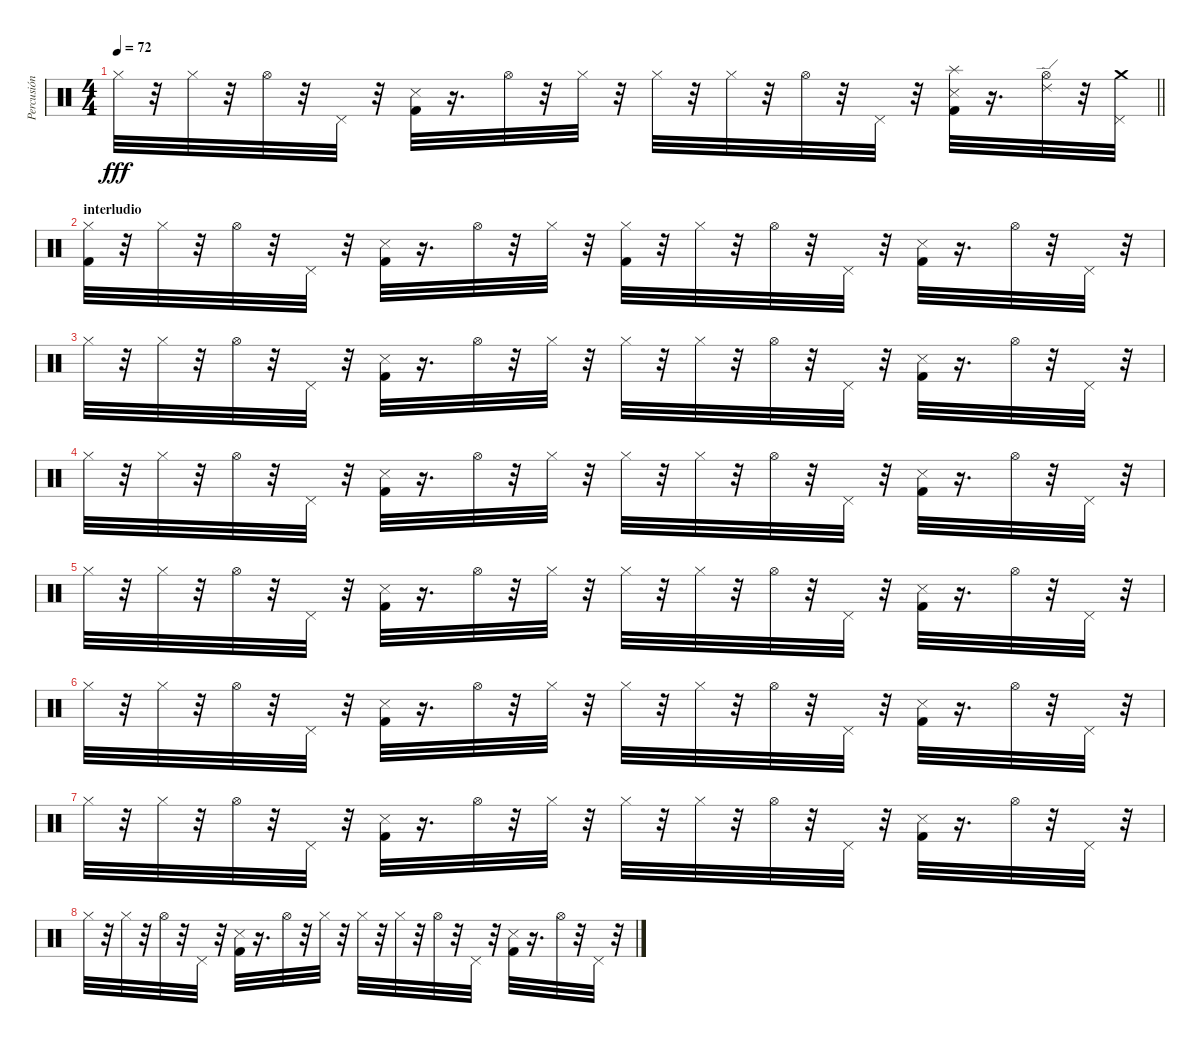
\track ("Percusión" "Percusión") {instrument percussion}
\staff {score}
\articulation defaults
\ts (4 4)
\tempo 72
\clef neutral
\barLineRight lightlight
\ks c "Hi-Hat (closed)".32{dy fff}
r.32 "Hi-Hat (closed)".32 r.32 "Hi-Hat (open)".32 r.32 "Pedal Hi-Hat (hit)".32 r.32 ("Kick (hit) 2" "Snare (side stick) 3").32 r.16{d} "Hi-Hat (open)".32 r.32 "Hi-Hat (closed)".32 r.32 "Hi-Hat (closed)".32 r.32 "Hi-Hat (closed)".32 r.32 "Hi-Hat (open)".32 r.32 "Pedal Hi-Hat (hit)".32 r.32 ("Kick (hit) 2" "Snare (side stick) 3" "Splash (hit)").32 r.16{d} ("Hi-Hat (open)" "Ride (edge) 2").32 r.32 ("Pedal Hi-Hat (hit)" "Crash medium (hit)").32 |
\section ("" "interludio")
("Kick (hit) 2" "Hi-Hat (closed)").32 r.32 "Hi-Hat (closed)".32 r.32 "Hi-Hat (open)".32 r.32 "Pedal Hi-Hat (hit)".32 r.32 ("Snare (side stick) 3" "Kick (hit) 2").32 r.16{d} "Hi-Hat (open)".32 r.32 "Hi-Hat (closed)".32 r.32 ("Kick (hit) 2" "Hi-Hat (closed)").32 r.32 "Hi-Hat (closed)".32 r.32 "Hi-Hat (open)".32 r.32 "Pedal Hi-Hat (hit)".32 r.32 ("Snare (side stick) 3" "Kick (hit) 2").32 r.16{d} "Hi-Hat (open)".32 r.32 "Pedal Hi-Hat (hit)".32 r.32 |
"Hi-Hat (closed)".32 r.32 "Hi-Hat (closed)".32 r.32 "Hi-Hat (open)".32 r.32 "Pedal Hi-Hat (hit)".32 r.32 ("Kick (hit) 2" "Snare (side stick) 3").32 r.16{d} "Hi-Hat (open)".32 r.32 "Hi-Hat (closed)".32 r.32 "Hi-Hat (closed)".32 r.32 "Hi-Hat (closed)".32 r.32 "Hi-Hat (open)".32 r.32 "Pedal Hi-Hat (hit)".32 r.32 ("Kick (hit) 2" "Snare (side stick) 3").32 r.16{d} "Hi-Hat (open)".32 r.32 "Pedal Hi-Hat (hit)".32 r.32 |
"Hi-Hat (closed)".32 r.32 "Hi-Hat (closed)".32 r.32 "Hi-Hat (open)".32 r.32 "Pedal Hi-Hat (hit)".32 r.32 ("Kick (hit) 2" "Snare (side stick) 3").32 r.16{d} "Hi-Hat (open)".32 r.32 "Hi-Hat (closed)".32 r.32 "Hi-Hat (closed)".32 r.32 "Hi-Hat (closed)".32 r.32 "Hi-Hat (open)".32 r.32 "Pedal Hi-Hat (hit)".32 r.32 ("Kick (hit) 2" "Snare (side stick) 3").32 r.16{d} "Hi-Hat (open)".32 r.32 "Pedal Hi-Hat (hit)".32 r.32 |
"Hi-Hat (closed)".32 r.32 "Hi-Hat (closed)".32 r.32 "Hi-Hat (open)".32 r.32 "Pedal Hi-Hat (hit)".32 r.32 ("Kick (hit) 2" "Snare (side stick) 3").32 r.16{d} "Hi-Hat (open)".32 r.32 "Hi-Hat (closed)".32 r.32 "Hi-Hat (closed)".32 r.32 "Hi-Hat (closed)".32 r.32 "Hi-Hat (open)".32 r.32 "Pedal Hi-Hat (hit)".32 r.32 ("Kick (hit) 2" "Snare (side stick) 3").32 r.16{d} "Hi-Hat (open)".32 r.32 "Pedal Hi-Hat (hit)".32 r.32 |
"Hi-Hat (closed)".32 r.32 "Hi-Hat (closed)".32 r.32 "Hi-Hat (open)".32 r.32 "Pedal Hi-Hat (hit)".32 r.32 ("Kick (hit) 2" "Snare (side stick) 3").32 r.16{d} "Hi-Hat (open)".32 r.32 "Hi-Hat (closed)".32 r.32 "Hi-Hat (closed)".32 r.32 "Hi-Hat (closed)".32 r.32 "Hi-Hat (open)".32 r.32 "Pedal Hi-Hat (hit)".32 r.32 ("Kick (hit) 2" "Snare (side stick) 3").32 r.16{d} "Hi-Hat (open)".32 r.32 "Pedal Hi-Hat (hit)".32 r.32 |
"Hi-Hat (closed)".32 r.32 "Hi-Hat (closed)".32 r.32 "Hi-Hat (open)".32 r.32 "Pedal Hi-Hat (hit)".32 r.32 ("Kick (hit) 2" "Snare (side stick) 3").32 r.16{d} "Hi-Hat (open)".32 r.32 "Hi-Hat (closed)".32 r.32 "Hi-Hat (closed)".32 r.32 "Hi-Hat (closed)".32 r.32 "Hi-Hat (open)".32 r.32 "Pedal Hi-Hat (hit)".32 r.32 ("Kick (hit) 2" "Snare (side stick) 3").32 r.16{d} "Hi-Hat (open)".32 r.32 "Pedal Hi-Hat (hit)".32 r.32 |
"Hi-Hat (closed)".32 r.32 "Hi-Hat (closed)".32 r.32 "Hi-Hat (open)".32 r.32 "Pedal Hi-Hat (hit)".32 r.32 ("Kick (hit) 2" "Snare (side stick) 3").32 r.16{d} "Hi-Hat (open)".32 r.32 "Hi-Hat (closed)".32 r.32 "Hi-Hat (closed)".32 r.32 "Hi-Hat (closed)".32 r.32 "Hi-Hat (open)".32 r.32 "Pedal Hi-Hat (hit)".32 r.32 ("Kick (hit) 2" "Snare (side stick) 3").32 r.16{d} "Hi-Hat (open)".32 r.32 "Pedal Hi-Hat (hit)".32 r.32
